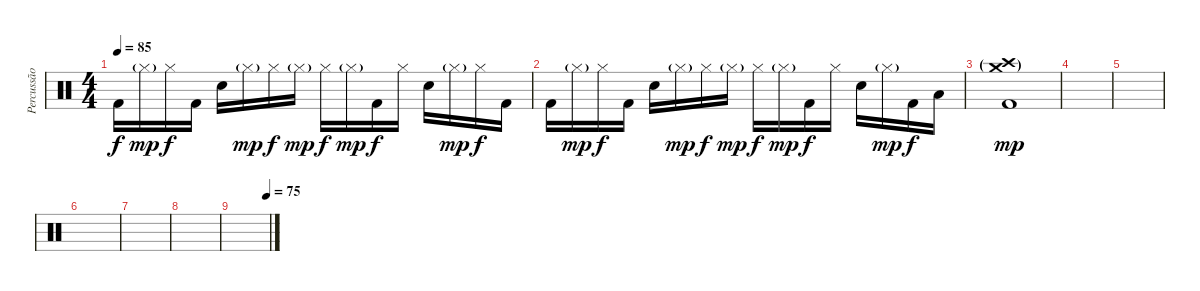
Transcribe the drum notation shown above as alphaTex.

\track ("Percussão" "Percussão") {instrument percussion}
\staff {score}
\articulation defaults
\ts (4 4)
\tempo 85
\clef neutral
\ks c "Kick (hit) 2".16{dy f} "Hi-Hat (closed)"{g}.16{dy mp} "Hi-Hat (closed)".16{dy f} "Kick (hit) 2".16 "Electric Snare (hit)".16 "Hi-Hat (closed)"{g}.16{dy mp} "Hi-Hat (closed)".16{dy f} "Hi-Hat (closed)"{g}.16{dy mp} "Hi-Hat (closed)".16{dy f} "Hi-Hat (closed)"{g}.16{dy mp} "Kick (hit) 2".16{dy f} "Hi-Hat (closed)".16 "Electric Snare (hit)".16 "Hi-Hat (closed)"{g}.16{dy mp} "Hi-Hat (closed)".16{dy f} "Kick (hit) 2".16
|
"Kick (hit) 2".16 "Hi-Hat (closed)"{g}.16{dy mp} "Hi-Hat (closed)".16{dy f} "Kick (hit) 2".16 "Electric Snare (hit)".16 "Hi-Hat (closed)"{g}.16{dy mp} "Hi-Hat (closed)".16{dy f} "Hi-Hat (closed)"{g}.16{dy mp} "Hi-Hat (closed)".16{dy f} "Hi-Hat (closed)"{g}.16{dy mp} "Kick (hit) 2".16{dy f} "Hi-Hat (closed)".16 "Electric Snare (hit)".16 "Hi-Hat (closed)"{g}.16{dy mp} "Kick (hit) 2".16{dy f} "Low Tom (hit)".16 |
("Crash medium (hit)"{g} "Crash high (hit)"{g} "Kick (hit) 2").1{dy mp} |
|
|
|
|
|
\tempo (75 0.9375)
